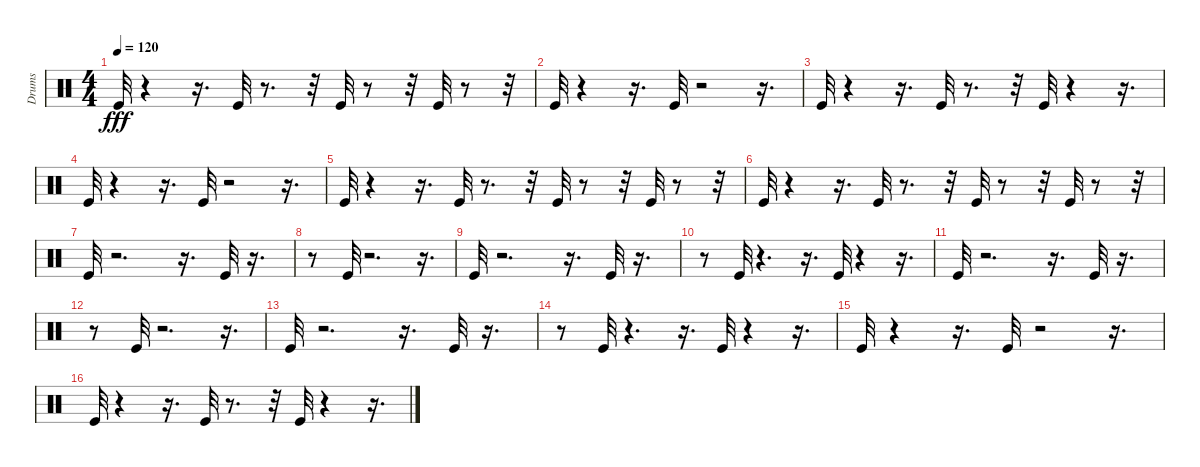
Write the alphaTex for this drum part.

\track ("Drums" "Drums") {instrument percussion}
\staff {score}
\articulation defaults
\ts (4 4)
\tempo 120
\clef neutral
\ks c "Kick (hit)".32{dy fff}
r.4 r.16{d} "Kick (hit)".32 r.8{d} r.32 "Kick (hit)".32 r.8 r.32 "Kick (hit)".32 r.8 r.32 |
"Kick (hit)".32 r.4 r.16{d} "Kick (hit)".32 r.2 r.16{d} |
"Kick (hit)".32 r.4 r.16{d} "Kick (hit)".32 r.8{d} r.32 "Kick (hit)".32 r.4 r.16{d} |
"Kick (hit)".32 r.4 r.16{d} "Kick (hit)".32 r.2 r.16{d} |
"Kick (hit)".32 r.4 r.16{d} "Kick (hit)".32 r.8{d} r.32 "Kick (hit)".32 r.8 r.32 "Kick (hit)".32 r.8 r.32 |
"Kick (hit)".32 r.4 r.16{d} "Kick (hit)".32 r.8{d} r.32 "Kick (hit)".32 r.8 r.32 "Kick (hit)".32 r.8 r.32 |
"Kick (hit)".32 r.2{d} r.16{d} "Kick (hit)".32 r.16{d} |
r.8 "Kick (hit)".32 r.2{d} r.16{d} |
"Kick (hit)".32 r.2{d} r.16{d} "Kick (hit)".32 r.16{d} |
r.8 "Kick (hit)".32 r.4{d} r.16{d} "Kick (hit)".32 r.4 r.16{d} |
"Kick (hit)".32 r.2{d} r.16{d} "Kick (hit)".32 r.16{d} |
r.8 "Kick (hit)".32 r.2{d} r.16{d} |
"Kick (hit)".32 r.2{d} r.16{d} "Kick (hit)".32 r.16{d} |
r.8 "Kick (hit)".32 r.4{d} r.16{d} "Kick (hit)".32 r.4 r.16{d} |
"Kick (hit)".32 r.4 r.16{d} "Kick (hit)".32 r.2 r.16{d} |
"Kick (hit)".32 r.4 r.16{d} "Kick (hit)".32 r.8{d} r.32 "Kick (hit)".32 r.4 r.16{d}
